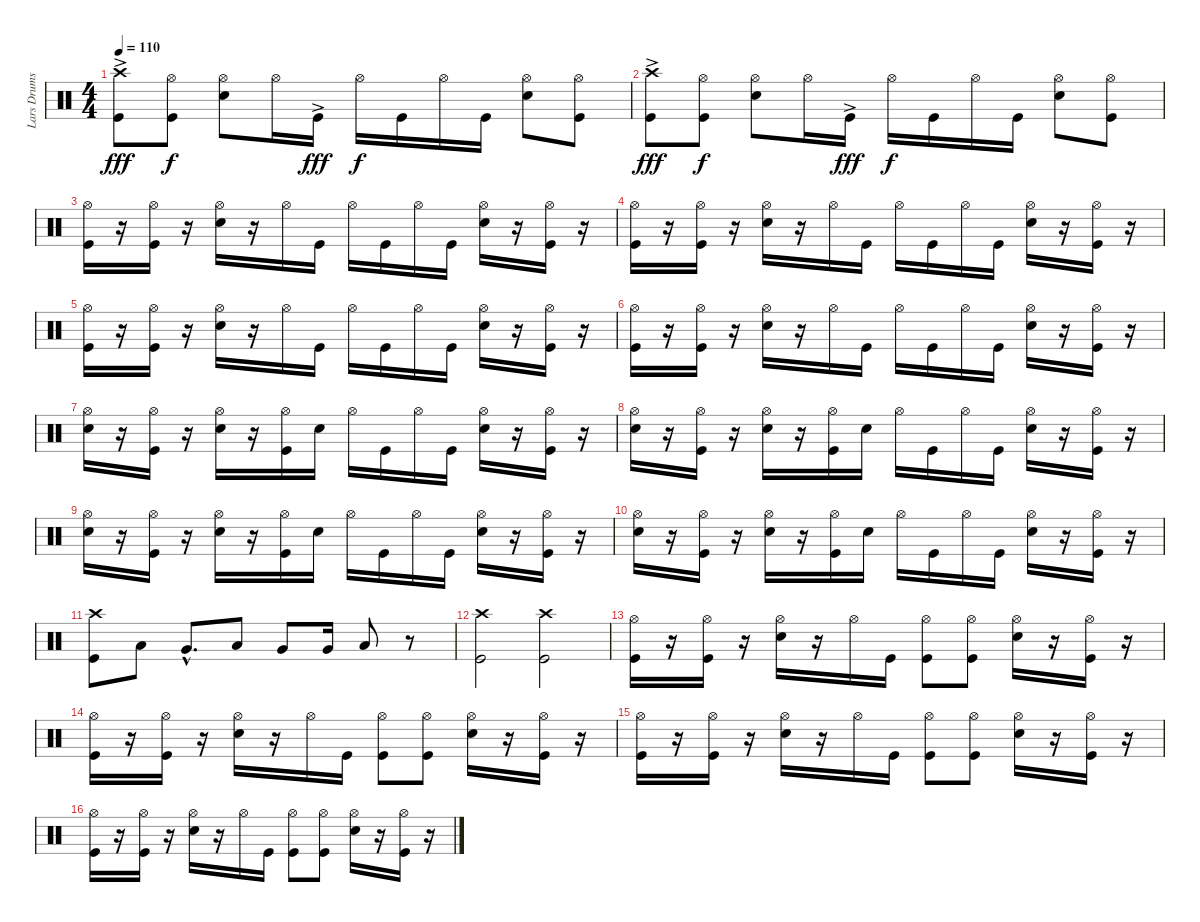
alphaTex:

\track ("Lars Drums" "Lars Drums") {instrument percussion}
\staff {score}
\articulation defaults
\ts (4 4)
\tempo 110
\clef neutral
\ks c
("Crash high (hit)" "Kick (hit)"{ac}).8{dy fff} ("Hi-Hat (open)" "Kick (hit)").8{dy f} ("Hi-Hat (open)" "Electric Snare (hit)").8 "Hi-Hat (open)".16 "Kick (hit)"{ac}.16{dy fff} "Hi-Hat (open)".16{dy f} "Kick (hit)".16 "Hi-Hat (open)".16 "Kick (hit)".16 ("Hi-Hat (open)" "Electric Snare (hit)").8 ("Hi-Hat (open)" "Kick (hit)").8 |
("Crash high (hit)" "Kick (hit)"{ac}).8{dy fff} ("Hi-Hat (open)" "Kick (hit)").8{dy f} ("Hi-Hat (open)" "Electric Snare (hit)").8 "Hi-Hat (open)".16 "Kick (hit)"{ac}.16{dy fff} "Hi-Hat (open)".16{dy f} "Kick (hit)".16 "Hi-Hat (open)".16 "Kick (hit)".16 ("Hi-Hat (open)" "Electric Snare (hit)").8 ("Hi-Hat (open)" "Kick (hit)").8 |
("Hi-Hat (open)" "Kick (hit)").16 r.16 ("Hi-Hat (open)" "Kick (hit)").16 r.16 ("Hi-Hat (open)" "Electric Snare (hit)").16 r.16 "Hi-Hat (open)".16 "Kick (hit)".16 "Hi-Hat (open)".16 "Kick (hit)".16 "Hi-Hat (open)".16 "Kick (hit)".16 ("Hi-Hat (open)" "Electric Snare (hit)").16 r.16 ("Hi-Hat (open)" "Kick (hit)").16 r.16 |
("Hi-Hat (open)" "Kick (hit)").16 r.16 ("Hi-Hat (open)" "Kick (hit)").16 r.16 ("Hi-Hat (open)" "Electric Snare (hit)").16 r.16 "Hi-Hat (open)".16 "Kick (hit)".16 "Hi-Hat (open)".16 "Kick (hit)".16 "Hi-Hat (open)".16 "Kick (hit)".16 ("Hi-Hat (open)" "Electric Snare (hit)").16 r.16 ("Hi-Hat (open)" "Kick (hit)").16 r.16 |
("Hi-Hat (open)" "Kick (hit)").16 r.16 ("Hi-Hat (open)" "Kick (hit)").16 r.16 ("Hi-Hat (open)" "Electric Snare (hit)").16 r.16 "Hi-Hat (open)".16 "Kick (hit)".16 "Hi-Hat (open)".16 "Kick (hit)".16 "Hi-Hat (open)".16 "Kick (hit)".16 ("Hi-Hat (open)" "Electric Snare (hit)").16 r.16 ("Hi-Hat (open)" "Kick (hit)").16 r.16 |
("Hi-Hat (open)" "Kick (hit)").16 r.16 ("Hi-Hat (open)" "Kick (hit)").16 r.16 ("Hi-Hat (open)" "Electric Snare (hit)").16 r.16 "Hi-Hat (open)".16 "Kick (hit)".16 "Hi-Hat (open)".16 "Kick (hit)".16 "Hi-Hat (open)".16 "Kick (hit)".16 ("Hi-Hat (open)" "Electric Snare (hit)").16 r.16 ("Hi-Hat (open)" "Kick (hit)").16 r.16 |
("Hi-Hat (open)" "Electric Snare (hit)").16 r.16 ("Hi-Hat (open)" "Kick (hit)").16 r.16 ("Hi-Hat (open)" "Electric Snare (hit)").16 r.16 ("Hi-Hat (open)" "Kick (hit)").16 "Electric Snare (hit)".16 "Hi-Hat (open)".16 "Kick (hit)".16 "Hi-Hat (open)".16 "Kick (hit)".16 ("Hi-Hat (open)" "Electric Snare (hit)").16 r.16 ("Hi-Hat (open)" "Kick (hit)").16 r.16 |
("Hi-Hat (open)" "Electric Snare (hit)").16 r.16 ("Hi-Hat (open)" "Kick (hit)").16 r.16 ("Hi-Hat (open)" "Electric Snare (hit)").16 r.16 ("Hi-Hat (open)" "Kick (hit)").16 "Electric Snare (hit)".16 "Hi-Hat (open)".16 "Kick (hit)".16 "Hi-Hat (open)".16 "Kick (hit)".16 ("Hi-Hat (open)" "Electric Snare (hit)").16 r.16 ("Hi-Hat (open)" "Kick (hit)").16 r.16 |
("Hi-Hat (open)" "Electric Snare (hit)").16 r.16 ("Hi-Hat (open)" "Kick (hit)").16 r.16 ("Hi-Hat (open)" "Electric Snare (hit)").16 r.16 ("Hi-Hat (open)" "Kick (hit)").16 "Electric Snare (hit)".16 "Hi-Hat (open)".16 "Kick (hit)".16 "Hi-Hat (open)".16 "Kick (hit)".16 ("Hi-Hat (open)" "Electric Snare (hit)").16 r.16 ("Hi-Hat (open)" "Kick (hit)").16 r.16 |
("Hi-Hat (open)" "Electric Snare (hit)").16 r.16 ("Hi-Hat (open)" "Kick (hit)").16 r.16 ("Hi-Hat (open)" "Electric Snare (hit)").16 r.16 ("Hi-Hat (open)" "Kick (hit)").16 "Electric Snare (hit)".16 "Hi-Hat (open)".16 "Kick (hit)".16 "Hi-Hat (open)".16 "Kick (hit)".16 ("Hi-Hat (open)" "Electric Snare (hit)").16 r.16 ("Hi-Hat (open)" "Kick (hit)").16 r.16 |
("Crash high (hit)" "Kick (hit)").8 "Low Floor Tom (hit)".8 "Very Low Tom (hit)"{hac}.8{d} "Low Floor Tom (hit)".8 "Very Low Tom (hit)".8 "Very Low Tom (hit)".16 "Low Floor Tom (hit)".8 r.8 |
("Crash high (hit)" "Kick (hit)").2 ("Crash high (hit)" "Kick (hit)").2 |
("Hi-Hat (open)" "Kick (hit)").16 r.16 ("Hi-Hat (open)" "Kick (hit)").16 r.16 ("Hi-Hat (open)" "Electric Snare (hit)").16 r.16 "Hi-Hat (open)".16 "Kick (hit)".16 ("Hi-Hat (open)" "Kick (hit)").8 ("Hi-Hat (open)" "Kick (hit)").8 ("Hi-Hat (open)" "Electric Snare (hit)").16 r.16 ("Hi-Hat (open)" "Kick (hit)").16 r.16 |
("Hi-Hat (open)" "Kick (hit)").16 r.16 ("Hi-Hat (open)" "Kick (hit)").16 r.16 ("Hi-Hat (open)" "Electric Snare (hit)").16 r.16 "Hi-Hat (open)".16 "Kick (hit)".16 ("Hi-Hat (open)" "Kick (hit)").8 ("Hi-Hat (open)" "Kick (hit)").8 ("Hi-Hat (open)" "Electric Snare (hit)").16 r.16 ("Hi-Hat (open)" "Kick (hit)").16 r.16 |
("Hi-Hat (open)" "Kick (hit)").16 r.16 ("Hi-Hat (open)" "Kick (hit)").16 r.16 ("Hi-Hat (open)" "Electric Snare (hit)").16 r.16 "Hi-Hat (open)".16 "Kick (hit)".16 ("Hi-Hat (open)" "Kick (hit)").8 ("Hi-Hat (open)" "Kick (hit)").8 ("Hi-Hat (open)" "Electric Snare (hit)").16 r.16 ("Hi-Hat (open)" "Kick (hit)").16 r.16 |
("Hi-Hat (open)" "Kick (hit)").16 r.16 ("Hi-Hat (open)" "Kick (hit)").16 r.16 ("Hi-Hat (open)" "Electric Snare (hit)").16 r.16 "Hi-Hat (open)".16 "Kick (hit)".16 ("Hi-Hat (open)" "Kick (hit)").8 ("Hi-Hat (open)" "Kick (hit)").8 ("Hi-Hat (open)" "Electric Snare (hit)").16 r.16 ("Hi-Hat (open)" "Kick (hit)").16 r.16
